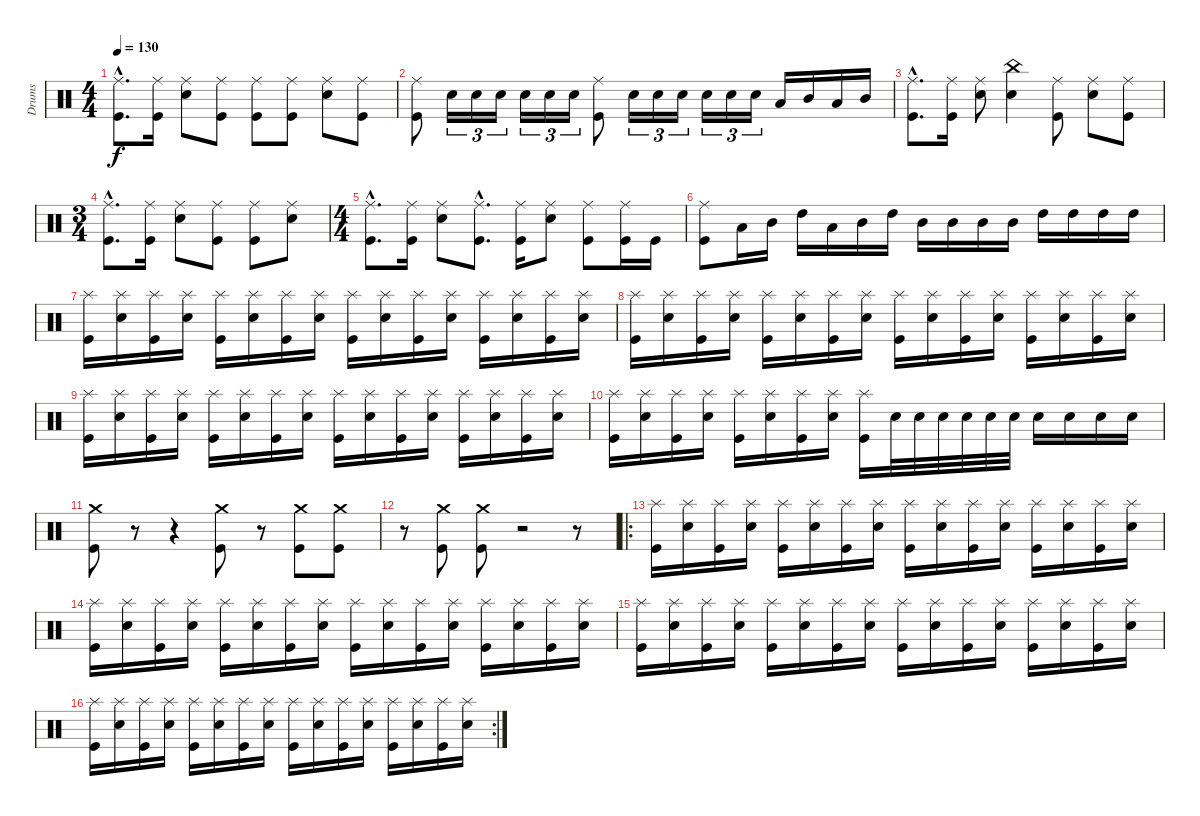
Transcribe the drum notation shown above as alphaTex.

\track ("Drums" "Drums") {instrument percussion}
\staff {score}
\articulation defaults
\ts (4 4)
\tempo 130
\clef neutral
\ks c
("Kick (hit)"{hac} "Ride (middle)"{hac}).8{d dy f} ("Kick (hit)" "Ride (middle)").16 ("Electric Snare (hit)" "Ride (middle)").8 ("Kick (hit)" "Ride (middle)").8 ("Kick (hit)" "Ride (middle)").8 ("Kick (hit)" "Ride (middle)").8 ("Electric Snare (hit)" "Ride (middle)").8 ("Kick (hit)" "Ride (middle)").8 |
("Kick (hit)" "Ride (middle)").8 "Electric Snare (hit)".16{tu (3 2)} "Electric Snare (hit)".16{tu (3 2)} "Electric Snare (hit)".16{tu (3 2)} "Electric Snare (hit)".16{tu (3 2)} "Electric Snare (hit)".16{tu (3 2)} "Electric Snare (hit)".16{tu (3 2)} ("Kick (hit)" "Ride (middle)").8 "Electric Snare (hit)".16{tu (3 2)} "Electric Snare (hit)".16{tu (3 2)} "Electric Snare (hit)".16{tu (3 2)} "Electric Snare (hit)".16{tu (3 2)} "Electric Snare (hit)".16{tu (3 2)} "Electric Snare (hit)".16{tu (3 2)} "Low Tom (hit)".16 "Mid Tom (hit)".16 "Low Tom (hit)".16 "Mid Tom (hit)".16 |
("Kick (hit)"{hac} "Ride (middle)"{hac}).8{d} ("Kick (hit)" "Ride (middle)").16 ("Electric Snare (hit)" "Ride (middle)").8 ("Electric Snare (hit)" "China (hit)").4 ("Kick (hit)" "Ride (middle)").8 ("Electric Snare (hit)" "Ride (middle)").8 ("Kick (hit)" "Ride (middle)").8 |
\ts (3 4)
("Kick (hit)"{hac} "Ride (middle)"{hac}).8{d} ("Kick (hit)" "Ride (middle)").16 ("Electric Snare (hit)" "Ride (middle)").8 ("Kick (hit)" "Ride (middle)").8 ("Kick (hit)" "Ride (middle)").8 ("Electric Snare (hit)" "Ride (middle)").8 |
\ts (4 4)
("Kick (hit)"{hac} "Ride (middle)"{hac}).8{d} ("Kick (hit)" "Ride (middle)").16 ("Electric Snare (hit)" "Ride (middle)").8 ("Kick (hit)"{hac} "Ride (middle)"{hac}).8{d} ("Kick (hit)" "Ride (middle)").16 ("Electric Snare (hit)" "Ride (middle)").8 ("Kick (hit)" "Ride (middle)").8 ("Kick (hit)" "Ride (middle)").16 "Kick (hit)".16 |
("Kick (hit)" "Ride (middle)").8 "Low Tom (hit)".16 "Mid Tom (hit)".16 "High Tom (hit)".16 "Low Tom (hit)".16 "Mid Tom (hit)".16 "High Tom (hit)".16 "Mid Tom (hit)".16 "Mid Tom (hit)".16 "Mid Tom (hit)".16 "Mid Tom (hit)".16 "High Tom (hit)".16 "High Tom (hit)".16 "High Tom (hit)".16 "High Tom (hit)".16 |
("Kick (hit)" "Splash (hit)").16 ("Electric Snare (hit)" "Splash (hit)").16 ("Kick (hit)" "Splash (hit)").16 ("Electric Snare (hit)" "Splash (hit)").16 ("Kick (hit)" "Splash (hit)").16 ("Electric Snare (hit)" "Splash (hit)").16 ("Kick (hit)" "Splash (hit)").16 ("Electric Snare (hit)" "Splash (hit)").16 ("Kick (hit)" "Splash (hit)").16 ("Electric Snare (hit)" "Splash (hit)").16 ("Kick (hit)" "Splash (hit)").16 ("Electric Snare (hit)" "Splash (hit)").16 ("Kick (hit)" "Splash (hit)").16 ("Electric Snare (hit)" "Splash (hit)").16 ("Kick (hit)" "Splash (hit)").16 ("Electric Snare (hit)" "Splash (hit)").16 |
("Kick (hit)" "Splash (hit)").16 ("Electric Snare (hit)" "Splash (hit)").16 ("Kick (hit)" "Splash (hit)").16 ("Electric Snare (hit)" "Splash (hit)").16 ("Kick (hit)" "Splash (hit)").16 ("Electric Snare (hit)" "Splash (hit)").16 ("Kick (hit)" "Splash (hit)").16 ("Electric Snare (hit)" "Splash (hit)").16 ("Kick (hit)" "Splash (hit)").16 ("Electric Snare (hit)" "Splash (hit)").16 ("Kick (hit)" "Splash (hit)").16 ("Electric Snare (hit)" "Splash (hit)").16 ("Kick (hit)" "Splash (hit)").16 ("Electric Snare (hit)" "Splash (hit)").16 ("Kick (hit)" "Splash (hit)").16 ("Electric Snare (hit)" "Splash (hit)").16 |
("Kick (hit)" "Splash (hit)").16 ("Electric Snare (hit)" "Splash (hit)").16 ("Kick (hit)" "Splash (hit)").16 ("Electric Snare (hit)" "Splash (hit)").16 ("Kick (hit)" "Splash (hit)").16 ("Electric Snare (hit)" "Splash (hit)").16 ("Kick (hit)" "Splash (hit)").16 ("Electric Snare (hit)" "Splash (hit)").16 ("Kick (hit)" "Splash (hit)").16 ("Electric Snare (hit)" "Splash (hit)").16 ("Kick (hit)" "Splash (hit)").16 ("Electric Snare (hit)" "Splash (hit)").16 ("Kick (hit)" "Splash (hit)").16 ("Electric Snare (hit)" "Splash (hit)").16 ("Kick (hit)" "Splash (hit)").16 ("Electric Snare (hit)" "Splash (hit)").16 |
("Kick (hit)" "Splash (hit)").16 ("Electric Snare (hit)" "Splash (hit)").16 ("Kick (hit)" "Splash (hit)").16 ("Electric Snare (hit)" "Splash (hit)").16 ("Kick (hit)" "Splash (hit)").16 ("Electric Snare (hit)" "Splash (hit)").16 ("Kick (hit)" "Splash (hit)").16 ("Electric Snare (hit)" "Splash (hit)").16 ("Kick (hit)" "Splash (hit)").16 "Electric Snare (hit)".32 "Electric Snare (hit)".32 "Electric Snare (hit)".32 "Electric Snare (hit)".32 "Electric Snare (hit)".32 "Electric Snare (hit)".32 "Electric Snare (hit)".16 "Electric Snare (hit)".16 "Electric Snare (hit)".16 "Electric Snare (hit)".16 |
("Kick (hit)" "Crash medium (hit)").8 r.8 r.4 ("Kick (hit)" "Crash medium (hit)").8 r.8 ("Kick (hit)" "Crash medium (hit)").8 ("Kick (hit)" "Crash medium (hit)").8 |
r.8 ("Kick (hit)" "Crash medium (hit)").8 ("Kick (hit)" "Crash medium (hit)").8 r.2 r.8 |
\ro
("Kick (hit)" "Splash (hit)").16 ("Electric Snare (hit)" "Splash (hit)").16 ("Kick (hit)" "Splash (hit)").16 ("Electric Snare (hit)" "Splash (hit)").16 ("Kick (hit)" "Splash (hit)").16 ("Electric Snare (hit)" "Splash (hit)").16 ("Kick (hit)" "Splash (hit)").16 ("Electric Snare (hit)" "Splash (hit)").16 ("Kick (hit)" "Splash (hit)").16 ("Electric Snare (hit)" "Splash (hit)").16 ("Kick (hit)" "Splash (hit)").16 ("Electric Snare (hit)" "Splash (hit)").16 ("Kick (hit)" "Splash (hit)").16 ("Electric Snare (hit)" "Splash (hit)").16 ("Kick (hit)" "Splash (hit)").16 ("Electric Snare (hit)" "Splash (hit)").16 |
("Kick (hit)" "Splash (hit)").16 ("Electric Snare (hit)" "Splash (hit)").16 ("Kick (hit)" "Splash (hit)").16 ("Electric Snare (hit)" "Splash (hit)").16 ("Kick (hit)" "Splash (hit)").16 ("Electric Snare (hit)" "Splash (hit)").16 ("Kick (hit)" "Splash (hit)").16 ("Electric Snare (hit)" "Splash (hit)").16 ("Kick (hit)" "Splash (hit)").16 ("Electric Snare (hit)" "Splash (hit)").16 ("Kick (hit)" "Splash (hit)").16 ("Electric Snare (hit)" "Splash (hit)").16 ("Kick (hit)" "Splash (hit)").16 ("Electric Snare (hit)" "Splash (hit)").16 ("Kick (hit)" "Splash (hit)").16 ("Electric Snare (hit)" "Splash (hit)").16 |
("Kick (hit)" "Splash (hit)").16 ("Electric Snare (hit)" "Splash (hit)").16 ("Kick (hit)" "Splash (hit)").16 ("Electric Snare (hit)" "Splash (hit)").16 ("Kick (hit)" "Splash (hit)").16 ("Electric Snare (hit)" "Splash (hit)").16 ("Kick (hit)" "Splash (hit)").16 ("Electric Snare (hit)" "Splash (hit)").16 ("Kick (hit)" "Splash (hit)").16 ("Electric Snare (hit)" "Splash (hit)").16 ("Kick (hit)" "Splash (hit)").16 ("Electric Snare (hit)" "Splash (hit)").16 ("Kick (hit)" "Splash (hit)").16 ("Electric Snare (hit)" "Splash (hit)").16 ("Kick (hit)" "Splash (hit)").16 ("Electric Snare (hit)" "Splash (hit)").16 |
\rc 2
("Kick (hit)" "Splash (hit)").16 ("Electric Snare (hit)" "Splash (hit)").16 ("Kick (hit)" "Splash (hit)").16 ("Electric Snare (hit)" "Splash (hit)").16 ("Kick (hit)" "Splash (hit)").16 ("Electric Snare (hit)" "Splash (hit)").16 ("Kick (hit)" "Splash (hit)").16 ("Electric Snare (hit)" "Splash (hit)").16 ("Kick (hit)" "Splash (hit)").16 ("Electric Snare (hit)" "Splash (hit)").16 ("Kick (hit)" "Splash (hit)").16 ("Electric Snare (hit)" "Splash (hit)").16 ("Kick (hit)" "Splash (hit)").16 ("Electric Snare (hit)" "Splash (hit)").16 ("Kick (hit)" "Splash (hit)").16 ("Electric Snare (hit)" "Splash (hit)").16
